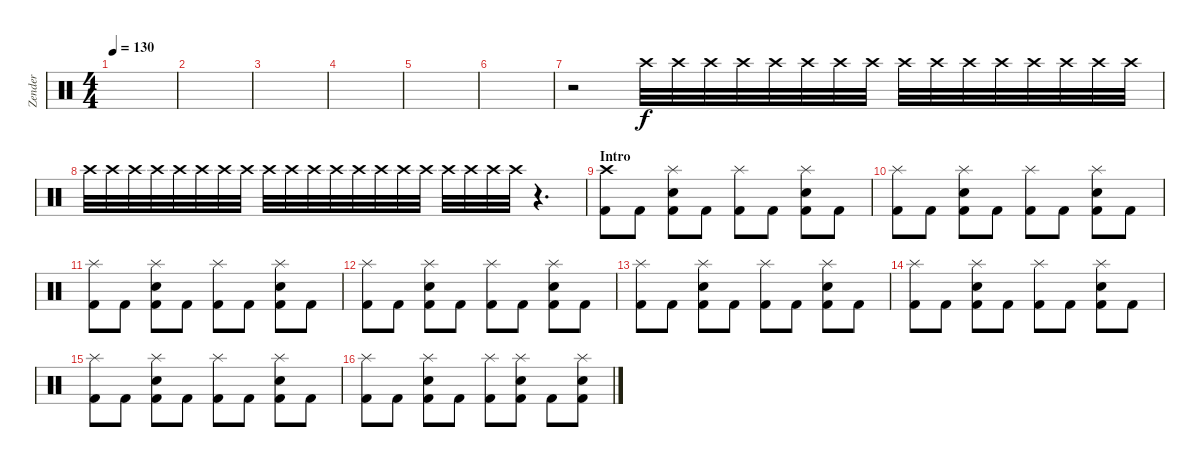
\track ("Zender" "Zender") {instrument percussion}
\staff {score}
\articulation defaults
\ts (4 4)
\tempo 130
\clef neutral
\ks c
|
|
|
|
|
|
r.2{volume 0} "Crash high (hit)".32{volume 10} "Crash high (hit)".32 "Crash high (hit)".32 "Crash high (hit)".32 "Crash high (hit)".32 "Crash high (hit)".32 "Crash high (hit)".32 "Crash high (hit)".32 "Crash high (hit)".32 "Crash high (hit)".32 "Crash high (hit)".32 "Crash high (hit)".32 "Crash high (hit)".32 "Crash high (hit)".32 "Crash high (hit)".32 "Crash high (hit)".32 |
"Crash high (hit)".32 "Crash high (hit)".32 "Crash high (hit)".32 "Crash high (hit)".32 "Crash high (hit)".32 "Crash high (hit)".32 "Crash high (hit)".32 "Crash high (hit)".32 "Crash high (hit)".32 "Crash high (hit)".32 "Crash high (hit)".32 "Crash high (hit)".32 "Crash high (hit)".32 "Crash high (hit)".32 "Crash high (hit)".32 "Crash high (hit)".32 "Crash high (hit)".32 "Crash high (hit)".32 "Crash high (hit)".32 "Crash high (hit)".32 r.4{d volume 0} |
\section ("" "Intro")
("Crash high (hit)" "Kick (hit) 2").8{volume 13} "Kick (hit) 2".8 ("Electric Snare (hit)" "Splash (hit)" "Kick (hit) 2").8 "Kick (hit) 2".8 ("Splash (hit)" "Kick (hit) 2").8 "Kick (hit) 2".8 ("Electric Snare (hit)" "Splash (hit)" "Kick (hit) 2").8 "Kick (hit) 2".8 |
("Splash (hit)" "Kick (hit) 2").8 "Kick (hit) 2".8 ("Electric Snare (hit)" "Splash (hit)" "Kick (hit) 2").8 "Kick (hit) 2".8 ("Splash (hit)" "Kick (hit) 2").8 "Kick (hit) 2".8 ("Electric Snare (hit)" "Splash (hit)" "Kick (hit) 2").8 "Kick (hit) 2".8 |
("Splash (hit)" "Kick (hit) 2").8 "Kick (hit) 2".8 ("Electric Snare (hit)" "Splash (hit)" "Kick (hit) 2").8 "Kick (hit) 2".8 ("Splash (hit)" "Kick (hit) 2").8 "Kick (hit) 2".8 ("Electric Snare (hit)" "Splash (hit)" "Kick (hit) 2").8 "Kick (hit) 2".8 |
("Splash (hit)" "Kick (hit) 2").8 "Kick (hit) 2".8 ("Electric Snare (hit)" "Splash (hit)" "Kick (hit) 2").8 "Kick (hit) 2".8 ("Splash (hit)" "Kick (hit) 2").8 "Kick (hit) 2".8 ("Electric Snare (hit)" "Splash (hit)" "Kick (hit) 2").8 "Kick (hit) 2".8 |
("Splash (hit)" "Kick (hit) 2").8 "Kick (hit) 2".8 ("Electric Snare (hit)" "Splash (hit)" "Kick (hit) 2").8 "Kick (hit) 2".8 ("Splash (hit)" "Kick (hit) 2").8 "Kick (hit) 2".8 ("Electric Snare (hit)" "Splash (hit)" "Kick (hit) 2").8 "Kick (hit) 2".8 |
("Splash (hit)" "Kick (hit) 2").8 "Kick (hit) 2".8 ("Electric Snare (hit)" "Splash (hit)" "Kick (hit) 2").8 "Kick (hit) 2".8 ("Splash (hit)" "Kick (hit) 2").8 "Kick (hit) 2".8 ("Electric Snare (hit)" "Splash (hit)" "Kick (hit) 2").8 "Kick (hit) 2".8 |
("Splash (hit)" "Kick (hit) 2").8 "Kick (hit) 2".8 ("Electric Snare (hit)" "Splash (hit)" "Kick (hit) 2").8 "Kick (hit) 2".8 ("Splash (hit)" "Kick (hit) 2").8 "Kick (hit) 2".8 ("Electric Snare (hit)" "Splash (hit)" "Kick (hit) 2").8 "Kick (hit) 2".8 |
("Splash (hit)" "Kick (hit) 2").8 "Kick (hit) 2".8 ("Electric Snare (hit)" "Splash (hit)" "Kick (hit) 2").8 "Kick (hit) 2".8 ("Splash (hit)" "Kick (hit) 2").8 ("Electric Snare (hit)" "Splash (hit)" "Kick (hit) 2").8 "Kick (hit) 2".8 ("Electric Snare (hit)" "Splash (hit)" "Kick (hit) 2").8
